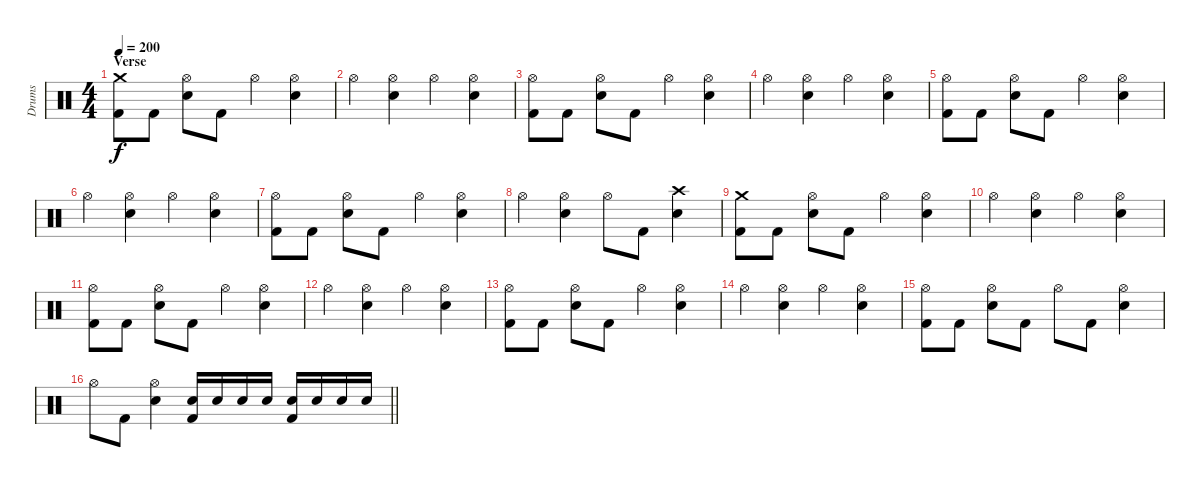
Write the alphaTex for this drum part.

\track ("Drums" "Drums") {instrument percussion}
\staff {score}
\articulation defaults
\ts (4 4)
\section ("" "Verse")
\tempo 200
\clef neutral
\ks c
("Crash medium (hit)" "Kick (hit) 2").8{dy f} "Kick (hit) 2".8 ("Hi-Hat (open)" "Electric Snare (hit)").8 "Kick (hit) 2".8 "Hi-Hat (open)".4 ("Hi-Hat (open)" "Electric Snare (hit)").4 |
"Hi-Hat (open)".4 ("Hi-Hat (open)" "Electric Snare (hit)").4 "Hi-Hat (open)".4 ("Hi-Hat (open)" "Electric Snare (hit)").4 |
("Hi-Hat (open)" "Kick (hit) 2").8 "Kick (hit) 2".8 ("Hi-Hat (open)" "Electric Snare (hit)").8 "Kick (hit) 2".8 "Hi-Hat (open)".4 ("Hi-Hat (open)" "Electric Snare (hit)").4 |
"Hi-Hat (open)".4 ("Hi-Hat (open)" "Electric Snare (hit)").4 "Hi-Hat (open)".4 ("Hi-Hat (open)" "Electric Snare (hit)").4 |
("Hi-Hat (open)" "Kick (hit) 2").8 "Kick (hit) 2".8 ("Hi-Hat (open)" "Electric Snare (hit)").8 "Kick (hit) 2".8 "Hi-Hat (open)".4 ("Hi-Hat (open)" "Electric Snare (hit)").4 |
"Hi-Hat (open)".4 ("Hi-Hat (open)" "Electric Snare (hit)").4 "Hi-Hat (open)".4 ("Hi-Hat (open)" "Electric Snare (hit)").4 |
("Hi-Hat (open)" "Kick (hit) 2").8 "Kick (hit) 2".8 ("Hi-Hat (open)" "Electric Snare (hit)").8 "Kick (hit) 2".8 "Hi-Hat (open)".4 ("Hi-Hat (open)" "Electric Snare (hit)").4 |
"Hi-Hat (open)".4 ("Hi-Hat (open)" "Electric Snare (hit)").4 "Hi-Hat (open)".8 "Kick (hit) 2".8 ("Crash high (hit)" "Electric Snare (hit)").4 |
("Crash medium (hit)" "Kick (hit) 2").8 "Kick (hit) 2".8 ("Hi-Hat (open)" "Electric Snare (hit)").8 "Kick (hit) 2".8 "Hi-Hat (open)".4 ("Hi-Hat (open)" "Electric Snare (hit)").4 |
"Hi-Hat (open)".4 ("Hi-Hat (open)" "Electric Snare (hit)").4 "Hi-Hat (open)".4 ("Hi-Hat (open)" "Electric Snare (hit)").4 |
("Hi-Hat (open)" "Kick (hit) 2").8 "Kick (hit) 2".8 ("Hi-Hat (open)" "Electric Snare (hit)").8 "Kick (hit) 2".8 "Hi-Hat (open)".4 ("Hi-Hat (open)" "Electric Snare (hit)").4 |
"Hi-Hat (open)".4 ("Hi-Hat (open)" "Electric Snare (hit)").4 "Hi-Hat (open)".4 ("Hi-Hat (open)" "Electric Snare (hit)").4 |
("Hi-Hat (open)" "Kick (hit) 2").8 "Kick (hit) 2".8 ("Hi-Hat (open)" "Electric Snare (hit)").8 "Kick (hit) 2".8 "Hi-Hat (open)".4 ("Hi-Hat (open)" "Electric Snare (hit)").4 |
"Hi-Hat (open)".4 ("Hi-Hat (open)" "Electric Snare (hit)").4 "Hi-Hat (open)".4 ("Hi-Hat (open)" "Electric Snare (hit)").4 |
("Hi-Hat (open)" "Kick (hit) 2").8 "Kick (hit) 2".8 ("Hi-Hat (open)" "Electric Snare (hit)").8 "Kick (hit) 2".8 "Hi-Hat (open)".8 "Kick (hit) 2".8 ("Hi-Hat (open)" "Electric Snare (hit)").4 |
\barLineRight lightlight "Hi-Hat (open)".8 "Kick (hit) 2".8
("Hi-Hat (open)" "Electric Snare (hit)").4 ("Electric Snare (hit)" "Kick (hit) 2").16 "Electric Snare (hit)".16 "Electric Snare (hit)".16 "Electric Snare (hit)".16 ("Electric Snare (hit)" "Kick (hit) 2").16 "Electric Snare (hit)".16 "Electric Snare (hit)".16 "Electric Snare (hit)".16
